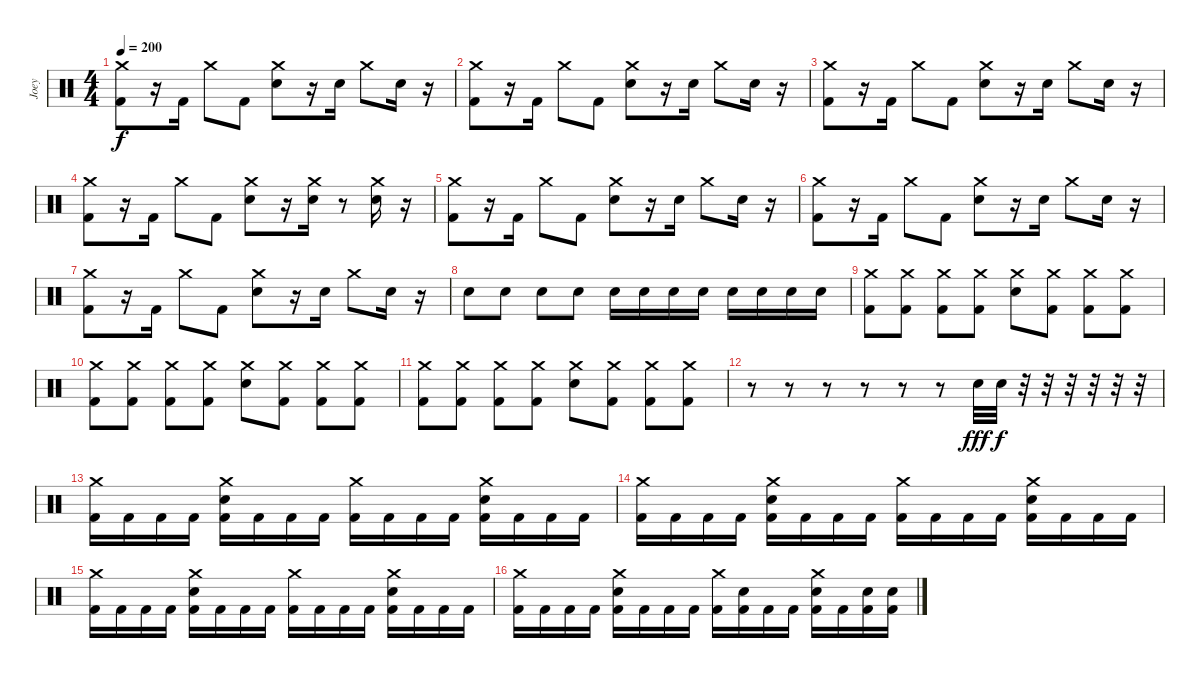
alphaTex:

\track ("Joey" "Joey") {instrument percussion}
\staff {score}
\articulation defaults
\ts (4 4)
\tempo 200
\clef neutral
\ks c
("Crash medium (hit)" "Kick (hit) 2").8{dy f} r.16 "Kick (hit) 2".16 "Crash medium (hit)".8 "Kick (hit) 2".8 ("Crash medium (hit)" "Electric Snare (hit)").8 r.16 "Electric Snare (hit)".16 "Crash medium (hit)".8 "Electric Snare (hit)".16 r.16 |
("Crash medium (hit)" "Kick (hit) 2").8 r.16 "Kick (hit) 2".16 "Crash medium (hit)".8 "Kick (hit) 2".8 ("Crash medium (hit)" "Electric Snare (hit)").8 r.16 "Electric Snare (hit)".16 "Crash medium (hit)".8 "Electric Snare (hit)".16 r.16 |
("Crash medium (hit)" "Kick (hit) 2").8 r.16 "Kick (hit) 2".16 "Crash medium (hit)".8 "Kick (hit) 2".8 ("Crash medium (hit)" "Electric Snare (hit)").8 r.16 "Electric Snare (hit)".16 "Crash medium (hit)".8 "Electric Snare (hit)".16 r.16 |
("Crash medium (hit)" "Kick (hit) 2").8 r.16 "Kick (hit) 2".16 "Crash medium (hit)".8 "Kick (hit) 2".8 ("Crash medium (hit)" "Electric Snare (hit)").8 r.16 ("Crash medium (hit)" "Electric Snare (hit)").16 r.8 ("Crash medium (hit)" "Electric Snare (hit)").16 r.16 |
("Crash medium (hit)" "Kick (hit) 2").8 r.16 "Kick (hit) 2".16 "Crash medium (hit)".8 "Kick (hit) 2".8 ("Crash medium (hit)" "Electric Snare (hit)").8 r.16 "Electric Snare (hit)".16 "Crash medium (hit)".8 "Electric Snare (hit)".16 r.16 |
("Crash medium (hit)" "Kick (hit) 2").8 r.16 "Kick (hit) 2".16 "Crash medium (hit)".8 "Kick (hit) 2".8 ("Crash medium (hit)" "Electric Snare (hit)").8 r.16 "Electric Snare (hit)".16 "Crash medium (hit)".8 "Electric Snare (hit)".16 r.16 |
("Crash medium (hit)" "Kick (hit) 2").8 r.16 "Kick (hit) 2".16 "Crash medium (hit)".8 "Kick (hit) 2".8 ("Crash medium (hit)" "Electric Snare (hit)").8 r.16 "Electric Snare (hit)".16 "Crash medium (hit)".8 "Electric Snare (hit)".16 r.16 |
"Electric Snare (hit)".8 "Electric Snare (hit)".8 "Electric Snare (hit)".8 "Electric Snare (hit)".8 "Electric Snare (hit)".16 "Electric Snare (hit)".16 "Electric Snare (hit)".16 "Electric Snare (hit)".16 "Electric Snare (hit)".16 "Electric Snare (hit)".16 "Electric Snare (hit)".16 "Electric Snare (hit)".16 |
("Crash medium (hit)" "Kick (hit) 2").8 ("Crash medium (hit)" "Kick (hit) 2").8 ("Crash medium (hit)" "Kick (hit) 2").8 ("Crash medium (hit)" "Kick (hit) 2").8 ("Crash medium (hit)" "Electric Snare (hit)").8 ("Crash medium (hit)" "Kick (hit) 2").8 ("Crash medium (hit)" "Kick (hit) 2").8 ("Crash medium (hit)" "Kick (hit) 2").8 |
("Crash medium (hit)" "Kick (hit) 2").8 ("Crash medium (hit)" "Kick (hit) 2").8 ("Crash medium (hit)" "Kick (hit) 2").8 ("Crash medium (hit)" "Kick (hit) 2").8 ("Crash medium (hit)" "Electric Snare (hit)").8 ("Crash medium (hit)" "Kick (hit) 2").8 ("Crash medium (hit)" "Kick (hit) 2").8 ("Crash medium (hit)" "Kick (hit) 2").8 |
("Crash medium (hit)" "Kick (hit) 2").8 ("Crash medium (hit)" "Kick (hit) 2").8 ("Crash medium (hit)" "Kick (hit) 2").8 ("Crash medium (hit)" "Kick (hit) 2").8 ("Crash medium (hit)" "Electric Snare (hit)").8 ("Crash medium (hit)" "Kick (hit) 2").8 ("Crash medium (hit)" "Kick (hit) 2").8 ("Crash medium (hit)" "Kick (hit) 2").8 |
r.8 r.8 r.8 r.8 r.8 r.8 "Electric Snare (hit)".32{dy fff} "Electric Snare (hit)".32{dy f} r.32 r.32 r.32 r.32 r.32 r.32 |
("Crash medium (hit)" "Kick (hit) 2").16 "Kick (hit) 2".16 "Kick (hit) 2".16 "Kick (hit) 2".16 ("Crash medium (hit)" "Electric Snare (hit)" "Kick (hit) 2").16 "Kick (hit) 2".16 "Kick (hit) 2".16 "Kick (hit) 2".16 ("Crash medium (hit)" "Kick (hit) 2").16 "Kick (hit) 2".16 "Kick (hit) 2".16 "Kick (hit) 2".16 ("Crash medium (hit)" "Electric Snare (hit)" "Kick (hit) 2").16 "Kick (hit) 2".16 "Kick (hit) 2".16 "Kick (hit) 2".16 |
("Crash medium (hit)" "Kick (hit) 2").16 "Kick (hit) 2".16 "Kick (hit) 2".16 "Kick (hit) 2".16 ("Crash medium (hit)" "Electric Snare (hit)" "Kick (hit) 2").16 "Kick (hit) 2".16 "Kick (hit) 2".16 "Kick (hit) 2".16 ("Crash medium (hit)" "Kick (hit) 2").16 "Kick (hit) 2".16 "Kick (hit) 2".16 "Kick (hit) 2".16 ("Crash medium (hit)" "Electric Snare (hit)" "Kick (hit) 2").16 "Kick (hit) 2".16 "Kick (hit) 2".16 "Kick (hit) 2".16 |
("Crash medium (hit)" "Kick (hit) 2").16 "Kick (hit) 2".16 "Kick (hit) 2".16 "Kick (hit) 2".16 ("Crash medium (hit)" "Electric Snare (hit)" "Kick (hit) 2").16 "Kick (hit) 2".16 "Kick (hit) 2".16 "Kick (hit) 2".16 ("Crash medium (hit)" "Kick (hit) 2").16 "Kick (hit) 2".16 "Kick (hit) 2".16 "Kick (hit) 2".16 ("Crash medium (hit)" "Electric Snare (hit)" "Kick (hit) 2").16 "Kick (hit) 2".16 "Kick (hit) 2".16 "Kick (hit) 2".16 |
("Crash medium (hit)" "Kick (hit) 2").16 "Kick (hit) 2".16 "Kick (hit) 2".16 "Kick (hit) 2".16 ("Crash medium (hit)" "Electric Snare (hit)" "Kick (hit) 2").16 "Kick (hit) 2".16 "Kick (hit) 2".16 "Kick (hit) 2".16 ("Crash medium (hit)" "Kick (hit) 2").16 ("Electric Snare (hit)" "Kick (hit) 2").16 "Kick (hit) 2".16 "Kick (hit) 2".16 ("Crash medium (hit)" "Electric Snare (hit)" "Kick (hit) 2").16 "Kick (hit) 2".16 ("Electric Snare (hit)" "Kick (hit) 2").16 ("Electric Snare (hit)" "Kick (hit) 2").16
